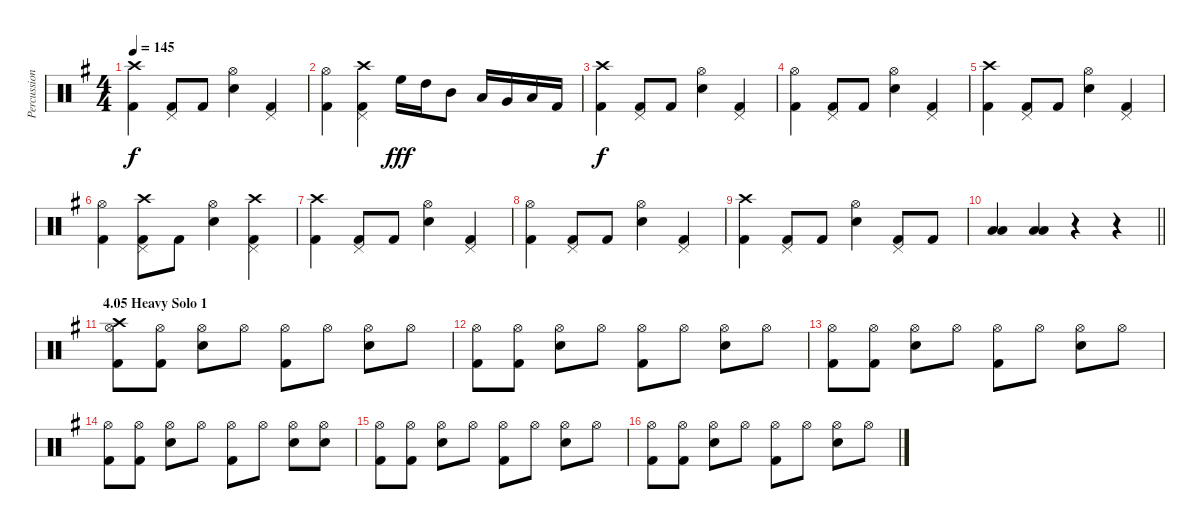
\track ("Percussion" "Percussion") {instrument percussion}
\staff {score}
\articulation defaults
\ts (4 4)
\tempo 145
\clef neutral
\ks eminor
("Crash high (hit)" "Kick (hit) 2").4{dy f} ("Pedal Hi-Hat (hit)" "Kick (hit) 2").8 "Kick (hit) 2".8 ("Hi-Hat (open)" "Electric Snare (hit)").4 ("Pedal Hi-Hat (hit)" "Kick (hit) 2").4 |
("Hi-Hat (open)" "Kick (hit) 2").4 ("Crash high (hit)" "Pedal Hi-Hat (hit)" "Kick (hit) 2").4 "High Floor Tom (hit)".16{dy fff} "High Tom (hit)".16 "Mid Tom (hit)".8 "Low Tom (hit)".16 "Very Low Tom (hit)".16 "Low Floor Tom (hit)".16 "Kick (hit) 2".16 |
("Crash high (hit)" "Kick (hit) 2").4{dy f} ("Pedal Hi-Hat (hit)" "Kick (hit) 2").8 "Kick (hit) 2".8 ("Hi-Hat (open)" "Electric Snare (hit)").4 ("Pedal Hi-Hat (hit)" "Kick (hit) 2").4 |
("Hi-Hat (open)" "Kick (hit) 2").4 ("Pedal Hi-Hat (hit)" "Kick (hit) 2").8 "Kick (hit) 2".8 ("Hi-Hat (open)" "Electric Snare (hit)").4 ("Pedal Hi-Hat (hit)" "Kick (hit) 2").4 |
("Crash high (hit)" "Kick (hit) 2").4 ("Pedal Hi-Hat (hit)" "Kick (hit) 2").8 "Kick (hit) 2".8 ("Hi-Hat (open)" "Electric Snare (hit)").4 ("Pedal Hi-Hat (hit)" "Kick (hit) 2").4 |
("Hi-Hat (open)" "Kick (hit) 2").4 ("Crash high (hit)" "Pedal Hi-Hat (hit)" "Kick (hit) 2").8 "Kick (hit) 2".8 ("Hi-Hat (open)" "Electric Snare (hit)").4 ("Crash high (hit)" "Pedal Hi-Hat (hit)" "Kick (hit) 2").4 |
("Crash high (hit)" "Kick (hit) 2").4 ("Pedal Hi-Hat (hit)" "Kick (hit) 2").8 "Kick (hit) 2".8 ("Hi-Hat (open)" "Electric Snare (hit)").4 ("Pedal Hi-Hat (hit)" "Kick (hit) 2").4 |
("Hi-Hat (open)" "Kick (hit) 2").4 ("Pedal Hi-Hat (hit)" "Kick (hit) 2").8 "Kick (hit) 2".8 ("Hi-Hat (open)" "Electric Snare (hit)").4 ("Pedal Hi-Hat (hit)" "Kick (hit) 2").4 |
("Crash high (hit)" "Kick (hit) 2").4 ("Pedal Hi-Hat (hit)" "Kick (hit) 2").8 "Kick (hit) 2".8 ("Hi-Hat (open)" "Electric Snare (hit)").4 ("Pedal Hi-Hat (hit)" "Kick (hit) 2").8 "Kick (hit) 2".8 |
\barLineRight lightlight
("Low Tom (hit)" "Low Floor Tom (hit)").4 ("Low Tom (hit)" "Low Floor Tom (hit)").4 r.4 r.4 |
\section ("" "4.05 Heavy Solo 1")
("Crash high (hit)" "Hi-Hat (open)" "Kick (hit) 2").8 ("Hi-Hat (open)" "Kick (hit) 2").8 ("Hi-Hat (open)" "Electric Snare (hit)").8 "Hi-Hat (open)".8 ("Hi-Hat (open)" "Kick (hit) 2").8 "Hi-Hat (open)".8 ("Hi-Hat (open)" "Electric Snare (hit)").8 "Hi-Hat (open)".8 |
("Hi-Hat (open)" "Kick (hit) 2").8 ("Hi-Hat (open)" "Kick (hit) 2").8 ("Hi-Hat (open)" "Electric Snare (hit)").8 "Hi-Hat (open)".8 ("Hi-Hat (open)" "Kick (hit) 2").8 "Hi-Hat (open)".8 ("Hi-Hat (open)" "Electric Snare (hit)").8 "Hi-Hat (open)".8 |
("Hi-Hat (open)" "Kick (hit) 2").8 ("Hi-Hat (open)" "Kick (hit) 2").8 ("Hi-Hat (open)" "Electric Snare (hit)").8 "Hi-Hat (open)".8 ("Hi-Hat (open)" "Kick (hit) 2").8 "Hi-Hat (open)".8 ("Hi-Hat (open)" "Electric Snare (hit)").8 "Hi-Hat (open)".8 |
("Hi-Hat (open)" "Kick (hit) 2").8 ("Hi-Hat (open)" "Kick (hit) 2").8 ("Hi-Hat (open)" "Electric Snare (hit)").8 "Hi-Hat (open)".8 ("Hi-Hat (open)" "Kick (hit) 2").8 "Hi-Hat (open)".8 ("Hi-Hat (open)" "Electric Snare (hit)").8 ("Hi-Hat (open)" "Electric Snare (hit)").8 |
("Hi-Hat (open)" "Kick (hit) 2").8 ("Hi-Hat (open)" "Kick (hit) 2").8 ("Hi-Hat (open)" "Electric Snare (hit)").8 "Hi-Hat (open)".8 ("Hi-Hat (open)" "Kick (hit) 2").8 "Hi-Hat (open)".8 ("Hi-Hat (open)" "Electric Snare (hit)").8 "Hi-Hat (open)".8 |
("Hi-Hat (open)" "Kick (hit) 2").8 ("Hi-Hat (open)" "Kick (hit) 2").8 ("Hi-Hat (open)" "Electric Snare (hit)").8 "Hi-Hat (open)".8 ("Hi-Hat (open)" "Kick (hit) 2").8 "Hi-Hat (open)".8 ("Hi-Hat (open)" "Electric Snare (hit)").8 "Hi-Hat (open)".8
